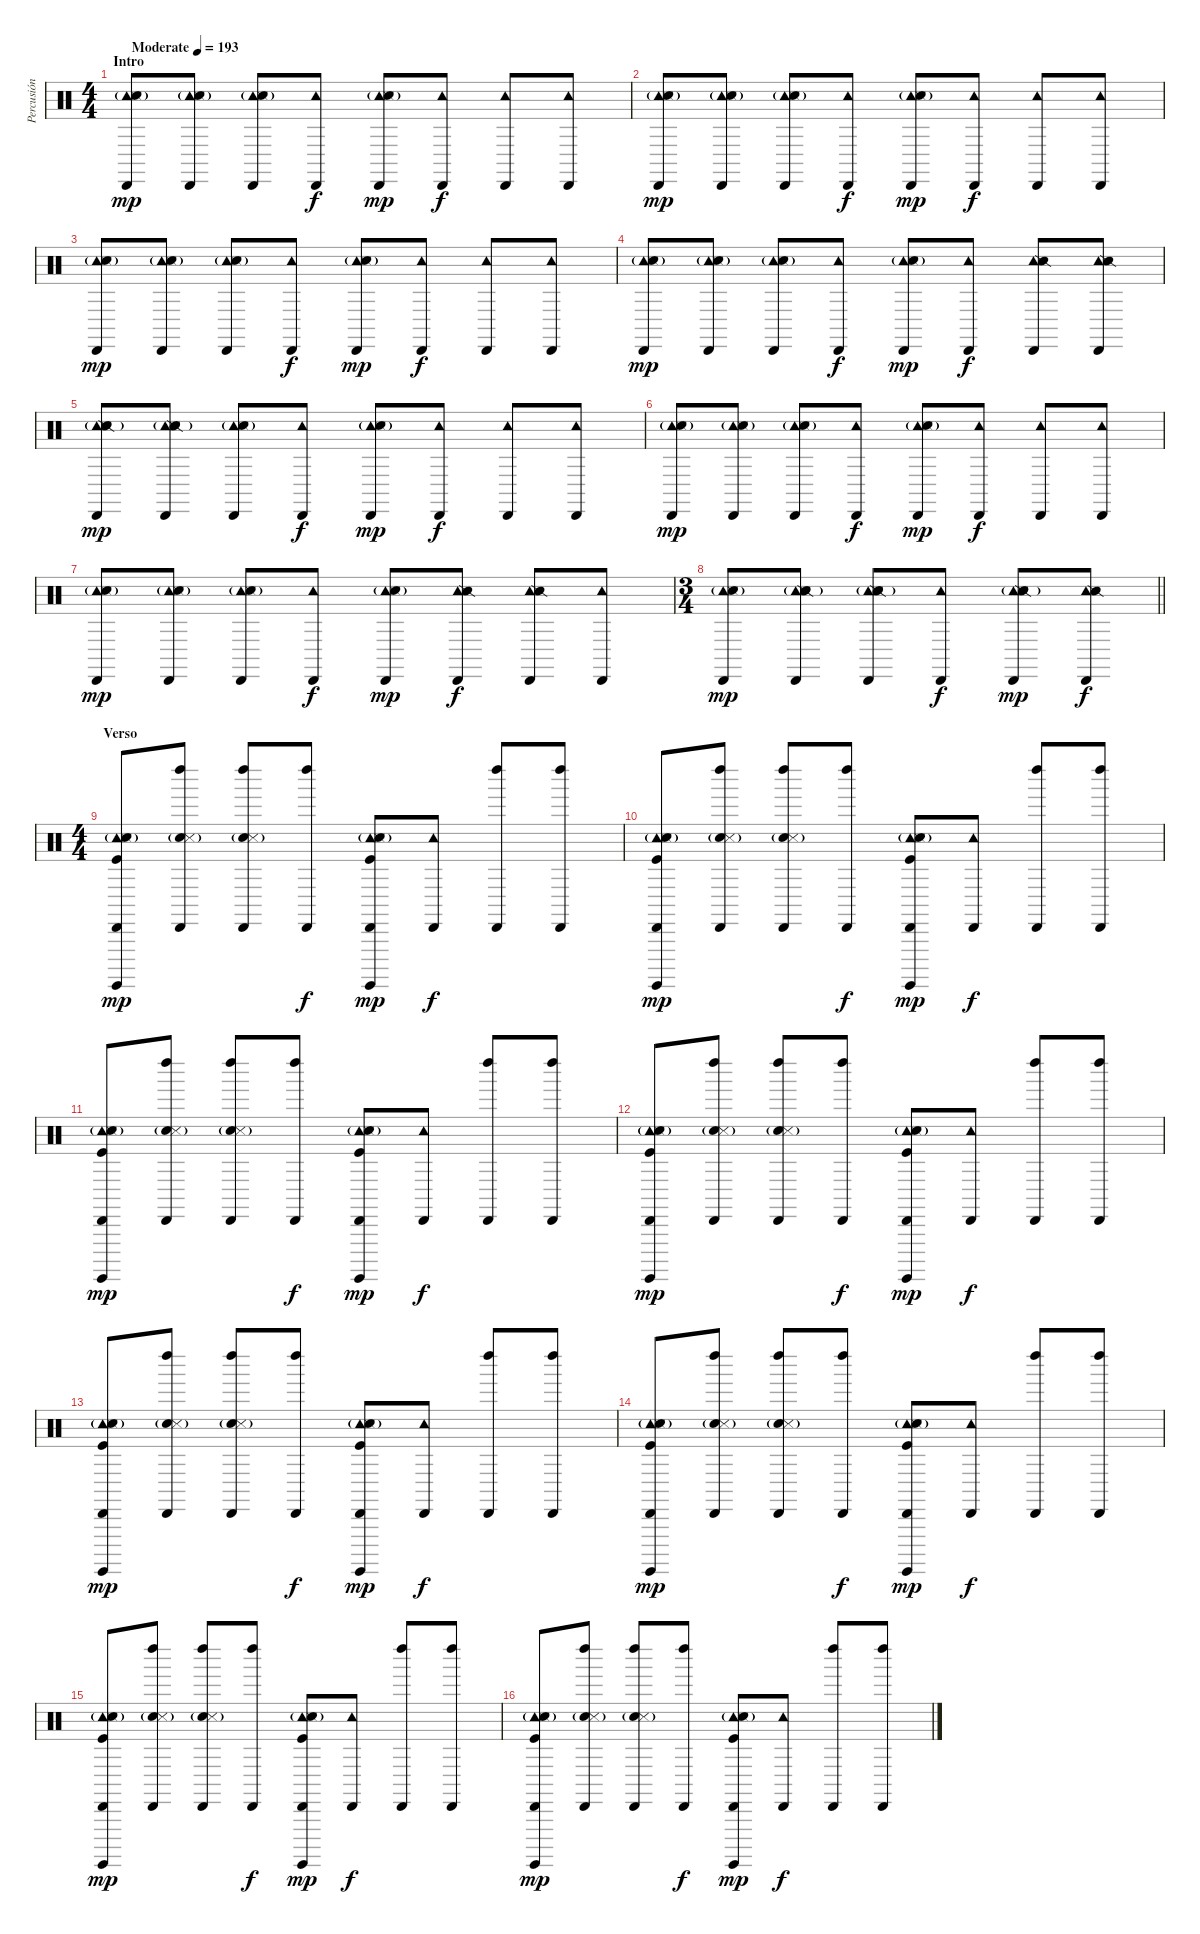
\track ("Percusión" "Percusión") {instrument percussion}
\staff {score}
\articulation defaults
\ts (4 4)
\section ("" "Intro")
\tempo (193 "Moderate")
\clef neutral
\ks c
("Cabasa (hit)" "Tambourine (hit)" "Hand Clap (hit)"{g} "Metronome (hit)").8{dy mp} ("Cabasa (hit)" "Tambourine (hit)" "Hand Clap (hit)"{g} "Metronome (hit)").8 ("Cabasa (hit)" "Tambourine (hit)" "Hand Clap (hit)"{g} "Metronome (hit)").8 ("Cabasa (hit)" "Tambourine (hit)").8{dy f} ("Cabasa (hit)" "Tambourine (hit)" "Hand Clap (hit)"{g} "Metronome (hit)").8{dy mp} ("Cabasa (hit)" "Tambourine (hit)").8{dy f} ("Cabasa (hit)" "Tambourine (hit)").8 ("Cabasa (hit)" "Tambourine (hit)").8 |
("Cabasa (hit)" "Tambourine (hit)" "Hand Clap (hit)"{g} "Metronome (hit)").8{dy mp} ("Cabasa (hit)" "Tambourine (hit)" "Hand Clap (hit)"{g} "Metronome (hit)").8 ("Cabasa (hit)" "Tambourine (hit)" "Hand Clap (hit)"{g} "Metronome (hit)").8 ("Cabasa (hit)" "Tambourine (hit)").8{dy f} ("Cabasa (hit)" "Tambourine (hit)" "Hand Clap (hit)"{g} "Metronome (hit)").8{dy mp} ("Cabasa (hit)" "Tambourine (hit)").8{dy f} ("Cabasa (hit)" "Tambourine (hit)").8 ("Cabasa (hit)" "Tambourine (hit)").8 |
("Cabasa (hit)" "Tambourine (hit)" "Hand Clap (hit)"{g} "Metronome (hit)").8{dy mp} ("Cabasa (hit)" "Tambourine (hit)" "Hand Clap (hit)"{g} "Metronome (hit)").8 ("Cabasa (hit)" "Tambourine (hit)" "Hand Clap (hit)"{g} "Metronome (hit)").8 ("Cabasa (hit)" "Tambourine (hit)").8{dy f} ("Cabasa (hit)" "Tambourine (hit)" "Hand Clap (hit)"{g} "Metronome (hit)").8{dy mp} ("Cabasa (hit)" "Tambourine (hit)").8{dy f} ("Cabasa (hit)" "Tambourine (hit)").8 ("Cabasa (hit)" "Tambourine (hit)").8 |
("Cabasa (hit)" "Tambourine (hit)" "Hand Clap (hit)"{g} "Metronome (hit)").8{dy mp} ("Cabasa (hit)" "Tambourine (hit)" "Hand Clap (hit)"{g} "Metronome (hit)").8 ("Cabasa (hit)" "Tambourine (hit)" "Hand Clap (hit)"{g} "Metronome (hit)").8 ("Cabasa (hit)" "Tambourine (hit)").8{dy f} ("Cabasa (hit)" "Tambourine (hit)" "Hand Clap (hit)"{g} "Metronome (hit)").8{dy mp} ("Cabasa (hit)" "Tambourine (hit)").8{dy f} ("Cabasa (hit)" "Tambourine (hit)" "Snare (side stick) 2").8 ("Cabasa (hit)" "Tambourine (hit)" "Snare (side stick) 2").8 |
("Cabasa (hit)" "Tambourine (hit)" "Hand Clap (hit)"{g} "Metronome (hit)" "Snare (side stick) 2").8{dy mp} ("Cabasa (hit)" "Tambourine (hit)" "Hand Clap (hit)"{g} "Metronome (hit)" "Snare (side stick) 2").8 ("Cabasa (hit)" "Tambourine (hit)" "Hand Clap (hit)"{g} "Metronome (hit)").8 ("Cabasa (hit)" "Tambourine (hit)").8{dy f} ("Cabasa (hit)" "Tambourine (hit)" "Hand Clap (hit)"{g} "Metronome (hit)").8{dy mp} ("Cabasa (hit)" "Tambourine (hit)").8{dy f} ("Cabasa (hit)" "Tambourine (hit)").8 ("Cabasa (hit)" "Tambourine (hit)").8 |
("Cabasa (hit)" "Tambourine (hit)" "Hand Clap (hit)"{g} "Metronome (hit)").8{dy mp} ("Cabasa (hit)" "Tambourine (hit)" "Hand Clap (hit)"{g} "Metronome (hit)").8 ("Cabasa (hit)" "Tambourine (hit)" "Hand Clap (hit)"{g} "Metronome (hit)").8 ("Cabasa (hit)" "Tambourine (hit)").8{dy f} ("Cabasa (hit)" "Tambourine (hit)" "Hand Clap (hit)"{g} "Metronome (hit)").8{dy mp} ("Cabasa (hit)" "Tambourine (hit)").8{dy f} ("Cabasa (hit)" "Tambourine (hit)").8 ("Cabasa (hit)" "Tambourine (hit)").8 |
("Cabasa (hit)" "Tambourine (hit)" "Hand Clap (hit)"{g} "Metronome (hit)").8{dy mp} ("Cabasa (hit)" "Tambourine (hit)" "Hand Clap (hit)"{g} "Metronome (hit)").8 ("Cabasa (hit)" "Tambourine (hit)" "Hand Clap (hit)"{g} "Metronome (hit)").8 ("Cabasa (hit)" "Tambourine (hit)").8{dy f} ("Cabasa (hit)" "Tambourine (hit)" "Hand Clap (hit)"{g} "Metronome (hit)").8{dy mp} ("Cabasa (hit)" "Tambourine (hit)" "Snare (side stick) 2").8{dy f} ("Cabasa (hit)" "Tambourine (hit)" "Snare (side stick) 2").8 ("Cabasa (hit)" "Tambourine (hit)").8 |
\ts (3 4)
\barLineRight lightlight
("Cabasa (hit)" "Tambourine (hit)" "Hand Clap (hit)"{g} "Metronome (hit)").8{dy mp} ("Cabasa (hit)" "Tambourine (hit)" "Hand Clap (hit)"{g} "Metronome (hit)" "Snare (side stick) 2").8 ("Cabasa (hit)" "Tambourine (hit)" "Hand Clap (hit)"{g} "Metronome (hit)" "Snare (side stick) 2").8 ("Cabasa (hit)" "Tambourine (hit)").8{dy f} ("Cabasa (hit)" "Tambourine (hit)" "Hand Clap (hit)"{g} "Metronome (hit)" "Snare (side stick) 2").8{dy mp} ("Cabasa (hit)" "Tambourine (hit)" "Snare (side stick) 2").8{dy f} |
\ts (4 4)
\section ("" "Verso")
("Cabasa (hit)" "Tambourine (hit)" "Hand Clap (hit)"{g} "Metronome (hit)" "Surdo (hit)" "Kick (hit)").8{dy mp} ("Cabasa (hit)" "Left Maraca (hit)" "Hand Clap (hit)"{g} "Metronome (hit)").8 ("Cabasa (hit)" "Left Maraca (hit)" "Hand Clap (hit)"{g} "Metronome (hit)").8 ("Cabasa (hit)" "Left Maraca (hit)").8{dy f} ("Cabasa (hit)" "Tambourine (hit)" "Hand Clap (hit)"{g} "Metronome (hit)" "Surdo (hit)" "Kick (hit)").8{dy mp} ("Cabasa (hit)" "Tambourine (hit)").8{dy f} ("Cabasa (hit)" "Left Maraca (hit)").8 ("Cabasa (hit)" "Left Maraca (hit)").8 |
("Cabasa (hit)" "Tambourine (hit)" "Hand Clap (hit)"{g} "Metronome (hit)" "Surdo (hit)" "Kick (hit)").8{dy mp} ("Cabasa (hit)" "Left Maraca (hit)" "Hand Clap (hit)"{g} "Metronome (hit)").8 ("Cabasa (hit)" "Left Maraca (hit)" "Hand Clap (hit)"{g} "Metronome (hit)").8 ("Cabasa (hit)" "Left Maraca (hit)").8{dy f} ("Cabasa (hit)" "Tambourine (hit)" "Hand Clap (hit)"{g} "Metronome (hit)" "Surdo (hit)" "Kick (hit)").8{dy mp} ("Cabasa (hit)" "Tambourine (hit)").8{dy f} ("Cabasa (hit)" "Left Maraca (hit)").8 ("Cabasa (hit)" "Left Maraca (hit)").8 |
("Cabasa (hit)" "Tambourine (hit)" "Hand Clap (hit)"{g} "Metronome (hit)" "Surdo (hit)" "Kick (hit)").8{dy mp} ("Cabasa (hit)" "Left Maraca (hit)" "Hand Clap (hit)"{g} "Metronome (hit)").8 ("Cabasa (hit)" "Left Maraca (hit)" "Hand Clap (hit)"{g} "Metronome (hit)").8 ("Cabasa (hit)" "Left Maraca (hit)").8{dy f} ("Cabasa (hit)" "Tambourine (hit)" "Hand Clap (hit)"{g} "Metronome (hit)" "Surdo (hit)" "Kick (hit)").8{dy mp} ("Cabasa (hit)" "Tambourine (hit)").8{dy f} ("Cabasa (hit)" "Left Maraca (hit)").8 ("Cabasa (hit)" "Left Maraca (hit)").8 |
("Cabasa (hit)" "Tambourine (hit)" "Hand Clap (hit)"{g} "Metronome (hit)" "Surdo (hit)" "Kick (hit)").8{dy mp} ("Cabasa (hit)" "Left Maraca (hit)" "Hand Clap (hit)"{g} "Metronome (hit)").8 ("Cabasa (hit)" "Left Maraca (hit)" "Hand Clap (hit)"{g} "Metronome (hit)").8 ("Cabasa (hit)" "Left Maraca (hit)").8{dy f} ("Cabasa (hit)" "Tambourine (hit)" "Hand Clap (hit)"{g} "Metronome (hit)" "Surdo (hit)" "Kick (hit)").8{dy mp} ("Cabasa (hit)" "Tambourine (hit)").8{dy f} ("Cabasa (hit)" "Left Maraca (hit)").8 ("Cabasa (hit)" "Left Maraca (hit)").8 |
("Cabasa (hit)" "Tambourine (hit)" "Hand Clap (hit)"{g} "Metronome (hit)" "Surdo (hit)" "Kick (hit)").8{dy mp} ("Cabasa (hit)" "Left Maraca (hit)" "Hand Clap (hit)"{g} "Metronome (hit)").8 ("Cabasa (hit)" "Left Maraca (hit)" "Hand Clap (hit)"{g} "Metronome (hit)").8 ("Cabasa (hit)" "Left Maraca (hit)").8{dy f} ("Cabasa (hit)" "Tambourine (hit)" "Hand Clap (hit)"{g} "Metronome (hit)" "Surdo (hit)" "Kick (hit)").8{dy mp} ("Cabasa (hit)" "Tambourine (hit)").8{dy f} ("Cabasa (hit)" "Left Maraca (hit)").8 ("Cabasa (hit)" "Left Maraca (hit)").8 |
("Cabasa (hit)" "Tambourine (hit)" "Hand Clap (hit)"{g} "Metronome (hit)" "Surdo (hit)" "Kick (hit)").8{dy mp} ("Cabasa (hit)" "Left Maraca (hit)" "Hand Clap (hit)"{g} "Metronome (hit)").8 ("Cabasa (hit)" "Left Maraca (hit)" "Hand Clap (hit)"{g} "Metronome (hit)").8 ("Cabasa (hit)" "Left Maraca (hit)").8{dy f} ("Cabasa (hit)" "Tambourine (hit)" "Hand Clap (hit)"{g} "Metronome (hit)" "Surdo (hit)" "Kick (hit)").8{dy mp} ("Cabasa (hit)" "Tambourine (hit)").8{dy f} ("Cabasa (hit)" "Left Maraca (hit)").8 ("Cabasa (hit)" "Left Maraca (hit)").8 |
("Cabasa (hit)" "Tambourine (hit)" "Hand Clap (hit)"{g} "Metronome (hit)" "Surdo (hit)" "Kick (hit)").8{dy mp} ("Cabasa (hit)" "Left Maraca (hit)" "Hand Clap (hit)"{g} "Metronome (hit)").8 ("Cabasa (hit)" "Left Maraca (hit)" "Hand Clap (hit)"{g} "Metronome (hit)").8 ("Cabasa (hit)" "Left Maraca (hit)").8{dy f} ("Cabasa (hit)" "Tambourine (hit)" "Hand Clap (hit)"{g} "Metronome (hit)" "Surdo (hit)" "Kick (hit)").8{dy mp} ("Cabasa (hit)" "Tambourine (hit)").8{dy f} ("Cabasa (hit)" "Left Maraca (hit)").8 ("Cabasa (hit)" "Left Maraca (hit)").8 |
("Cabasa (hit)" "Tambourine (hit)" "Hand Clap (hit)"{g} "Metronome (hit)" "Surdo (hit)" "Kick (hit)").8{dy mp} ("Cabasa (hit)" "Left Maraca (hit)" "Hand Clap (hit)"{g} "Metronome (hit)").8 ("Cabasa (hit)" "Left Maraca (hit)" "Hand Clap (hit)"{g} "Metronome (hit)").8 ("Cabasa (hit)" "Left Maraca (hit)").8{dy f} ("Cabasa (hit)" "Tambourine (hit)" "Hand Clap (hit)"{g} "Metronome (hit)" "Surdo (hit)" "Kick (hit)").8{dy mp} ("Cabasa (hit)" "Tambourine (hit)").8{dy f} ("Cabasa (hit)" "Left Maraca (hit)").8 ("Cabasa (hit)" "Left Maraca (hit)").8
